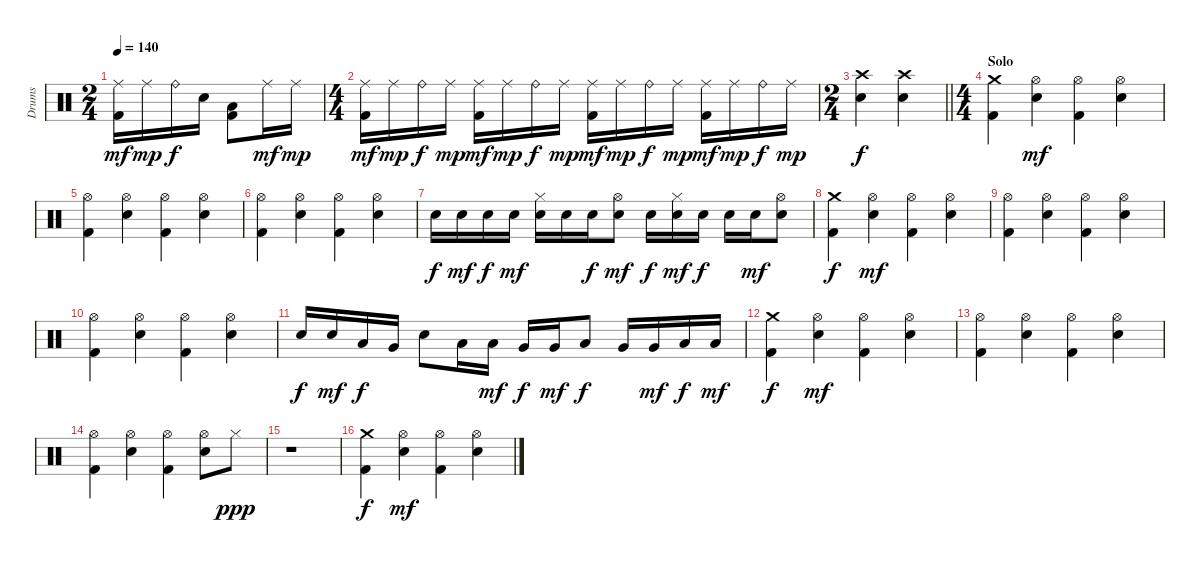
\track ("Drums" "Drums") {instrument percussion}
\staff {score}
\articulation defaults
\ts (2 4)
\tempo 140
\clef neutral
\ks c
("Kick (hit) 2" "Ride (middle)").16{dy mf} "Ride (middle)".16{dy mp} "Ride (bell)".16{dy f} "Electric Snare (hit)".16 ("Kick (hit) 2" "Low Tom (hit)").8 "Ride (middle)".16{dy mf} "Ride (middle)".16{dy mp} |
\ts (4 4)
("Kick (hit) 2" "Ride (middle)").16{dy mf} "Ride (middle)".16{dy mp} "Ride (bell)".16{dy f} "Ride (middle)".16{dy mp} ("Kick (hit) 2" "Ride (middle)").16{dy mf} "Ride (middle)".16{dy mp} "Ride (bell)".16{dy f} "Ride (middle)".16{dy mp} ("Kick (hit) 2" "Ride (middle)").16{dy mf} "Ride (middle)".16{dy mp} "Ride (bell)".16{dy f} "Ride (middle)".16{dy mp} ("Kick (hit) 2" "Ride (middle)").16{dy mf} "Ride (middle)".16{dy mp} "Ride (bell)".16{dy f} "Ride (middle)".16{dy mp} |
\ts (2 4)
\barLineRight lightlight
("Crash high (hit)" "Electric Snare (hit)").4{dy f} ("Crash high (hit)" "Electric Snare (hit)").4 |
\ts (4 4)
\section ("" "Solo")
("Kick (hit) 2" "Crash medium (hit)").4 ("Hi-Hat (open)" "Electric Snare (hit)").4{dy mf} ("Kick (hit) 2" "Hi-Hat (open)").4 ("Hi-Hat (open)" "Electric Snare (hit)").4 |
("Kick (hit) 2" "Hi-Hat (open)").4 ("Hi-Hat (open)" "Electric Snare (hit)").4 ("Kick (hit) 2" "Hi-Hat (open)").4 ("Hi-Hat (open)" "Electric Snare (hit)").4 |
("Kick (hit) 2" "Hi-Hat (open)").4 ("Hi-Hat (open)" "Electric Snare (hit)").4 ("Kick (hit) 2" "Hi-Hat (open)").4 ("Hi-Hat (open)" "Electric Snare (hit)").4 |
"Electric Snare (hit)".16{dy f} "Electric Snare (hit)".16{dy mf} "Electric Snare (hit)".16{dy f} "Electric Snare (hit)".16{dy mf} ("Hi-Hat (closed)" "Electric Snare (hit)").16 "Electric Snare (hit)".16 "Electric Snare (hit)".16{dy f} ("Hi-Hat (open)" "Electric Snare (hit)").8{dy mf} "Electric Snare (hit)".16{dy f} ("Hi-Hat (closed)" "Electric Snare (hit)").16{dy mf} "Electric Snare (hit)".16{dy f} "Electric Snare (hit)".16 "Electric Snare (hit)".16{dy mf} ("Hi-Hat (open)" "Electric Snare (hit)").8 |
("Kick (hit) 2" "Crash medium (hit)").4{dy f} ("Hi-Hat (open)" "Electric Snare (hit)").4{dy mf} ("Kick (hit) 2" "Hi-Hat (open)").4 ("Hi-Hat (open)" "Electric Snare (hit)").4 |
("Kick (hit) 2" "Hi-Hat (open)").4 ("Hi-Hat (open)" "Electric Snare (hit)").4 ("Kick (hit) 2" "Hi-Hat (open)").4 ("Hi-Hat (open)" "Electric Snare (hit)").4 |
("Kick (hit) 2" "Hi-Hat (open)").4 ("Hi-Hat (open)" "Electric Snare (hit)").4 ("Kick (hit) 2" "Hi-Hat (open)").4 ("Hi-Hat (open)" "Electric Snare (hit)").4 |
"Electric Snare (hit)".16{dy f} "Electric Snare (hit)".16{dy mf} "Low Tom (hit)".16{dy f} "Very Low Tom (hit)".16 "Electric Snare (hit)".8 "Low Tom (hit)".16 "Low Tom (hit)".16{dy mf} "Very Low Tom (hit)".16{dy f} "Very Low Tom (hit)".16{dy mf} "Low Tom (hit)".8{dy f} "Very Low Tom (hit)".16 "Very Low Tom (hit)".16{dy mf} "Low Floor Tom (hit)".16{dy f} "Low Floor Tom (hit)".16{dy mf} |
("Kick (hit) 2" "Crash medium (hit)").4{dy f} ("Hi-Hat (open)" "Electric Snare (hit)").4{dy mf} ("Kick (hit) 2" "Hi-Hat (open)").4 ("Hi-Hat (open)" "Electric Snare (hit)").4 |
("Kick (hit) 2" "Hi-Hat (open)").4 ("Hi-Hat (open)" "Electric Snare (hit)").4 ("Kick (hit) 2" "Hi-Hat (open)").4 ("Hi-Hat (open)" "Electric Snare (hit)").4 |
("Kick (hit) 2" "Hi-Hat (open)").4 ("Hi-Hat (open)" "Electric Snare (hit)").4 ("Kick (hit) 2" "Hi-Hat (open)").4 ("Hi-Hat (open)" "Electric Snare (hit)").8 "Hi-Hat (closed)".8{dy ppp} |
r.1 |
("Kick (hit) 2" "Crash medium (hit)").4{dy f} ("Hi-Hat (open)" "Electric Snare (hit)").4{dy mf} ("Kick (hit) 2" "Hi-Hat (open)").4 ("Hi-Hat (open)" "Electric Snare (hit)").4
